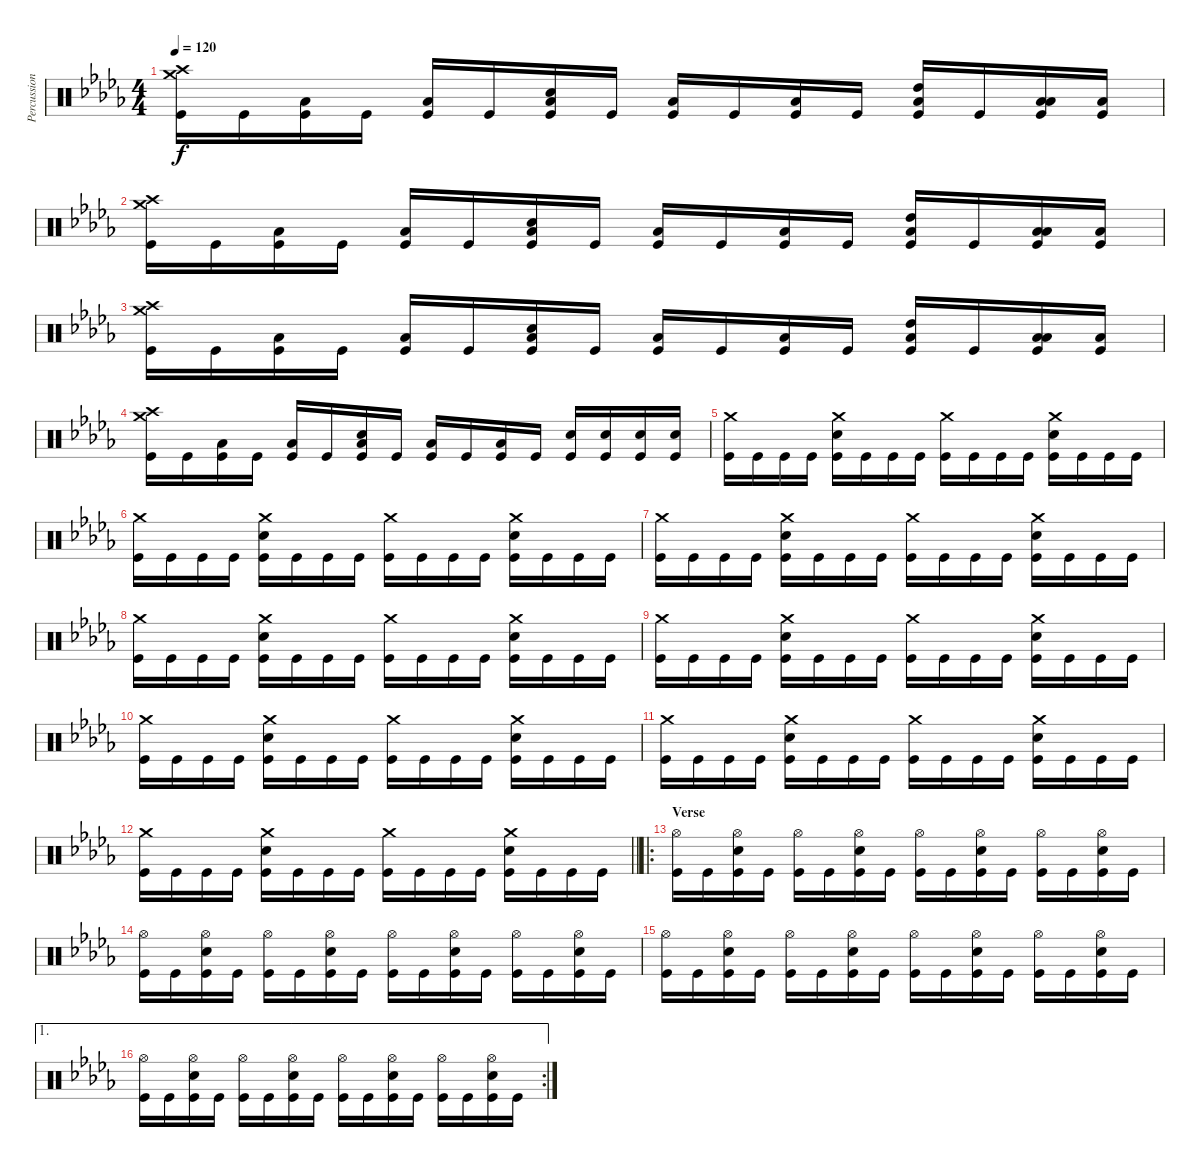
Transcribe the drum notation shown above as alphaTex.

\track ("Percussion" "Percussion") {instrument percussion}
\staff {score}
\articulation defaults
\ts (4 4)
\tempo 120
\clef neutral
\ks bbminor
("Crash medium (hit)" "Crash high (hit)" "Kick (hit)").16{dy f} "Kick (hit)".16 ("Low Floor Tom (hit)" "Kick (hit)").16 "Kick (hit)".16 ("Low Floor Tom (hit)" "Kick (hit)").16 "Kick (hit)".16 ("Snare (hit) 2" "Low Floor Tom (hit)" "Kick (hit)").16 "Kick (hit)".16 ("Low Floor Tom (hit)" "Kick (hit)").16 "Kick (hit)".16 ("Low Floor Tom (hit)" "Kick (hit)").16 "Kick (hit)".16 ("High Tom (hit)" "Low Floor Tom (hit)" "Kick (hit)").16 "Kick (hit)".16 ("Low Tom (hit)" "Low Floor Tom (hit)" "Kick (hit)").16 ("Low Tom (hit)" "Kick (hit)").16 |
("Crash medium (hit)" "Crash high (hit)" "Kick (hit)").16 "Kick (hit)".16 ("Low Floor Tom (hit)" "Kick (hit)").16 "Kick (hit)".16 ("Low Floor Tom (hit)" "Kick (hit)").16 "Kick (hit)".16 ("Snare (hit) 2" "Low Floor Tom (hit)" "Kick (hit)").16 "Kick (hit)".16 ("Low Floor Tom (hit)" "Kick (hit)").16 "Kick (hit)".16 ("Low Floor Tom (hit)" "Kick (hit)").16 "Kick (hit)".16 ("High Tom (hit)" "Low Floor Tom (hit)" "Kick (hit)").16 "Kick (hit)".16 ("Low Tom (hit)" "Low Floor Tom (hit)" "Kick (hit)").16 ("Low Tom (hit)" "Kick (hit)").16 |
("Crash medium (hit)" "Crash high (hit)" "Kick (hit)").16 "Kick (hit)".16 ("Low Floor Tom (hit)" "Kick (hit)").16 "Kick (hit)".16 ("Low Floor Tom (hit)" "Kick (hit)").16 "Kick (hit)".16 ("Snare (hit) 2" "Low Floor Tom (hit)" "Kick (hit)").16 "Kick (hit)".16 ("Low Floor Tom (hit)" "Kick (hit)").16 "Kick (hit)".16 ("Low Floor Tom (hit)" "Kick (hit)").16 "Kick (hit)".16 ("High Tom (hit)" "Low Floor Tom (hit)" "Kick (hit)").16 "Kick (hit)".16 ("Low Tom (hit)" "Low Floor Tom (hit)" "Kick (hit)").16 ("Low Tom (hit)" "Kick (hit)").16 |
("Crash medium (hit)" "Crash high (hit)" "Kick (hit)").16 "Kick (hit)".16 ("Low Floor Tom (hit)" "Kick (hit)").16 "Kick (hit)".16 ("Low Floor Tom (hit)" "Kick (hit)").16 "Kick (hit)".16 ("Snare (hit) 2" "Low Floor Tom (hit)" "Kick (hit)").16 "Kick (hit)".16 ("Low Floor Tom (hit)" "Kick (hit)").16 "Kick (hit)".16 ("Low Floor Tom (hit)" "Kick (hit)").16 "Kick (hit)".16 ("Snare (hit) 2" "Kick (hit)").16 ("Snare (hit) 2" "Kick (hit)").16 ("Snare (hit) 2" "Kick (hit)").16 ("Snare (hit) 2" "Kick (hit)").16 |
("Crash medium (hit)" "Kick (hit)").16 "Kick (hit)".16 "Kick (hit)".16 "Kick (hit)".16 ("Crash medium (hit)" "Snare (hit) 2" "Kick (hit)").16 "Kick (hit)".16 "Kick (hit)".16 "Kick (hit)".16 ("Crash medium (hit)" "Kick (hit)").16 "Kick (hit)".16 "Kick (hit)".16 "Kick (hit)".16 ("Crash medium (hit)" "Snare (hit) 2" "Kick (hit)").16 "Kick (hit)".16 "Kick (hit)".16 "Kick (hit)".16 |
("Crash medium (hit)" "Kick (hit)").16 "Kick (hit)".16 "Kick (hit)".16 "Kick (hit)".16 ("Crash medium (hit)" "Snare (hit) 2" "Kick (hit)").16 "Kick (hit)".16 "Kick (hit)".16 "Kick (hit)".16 ("Crash medium (hit)" "Kick (hit)").16 "Kick (hit)".16 "Kick (hit)".16 "Kick (hit)".16 ("Crash medium (hit)" "Snare (hit) 2" "Kick (hit)").16 "Kick (hit)".16 "Kick (hit)".16 "Kick (hit)".16 |
("Crash medium (hit)" "Kick (hit)").16 "Kick (hit)".16 "Kick (hit)".16 "Kick (hit)".16 ("Crash medium (hit)" "Snare (hit) 2" "Kick (hit)").16 "Kick (hit)".16 "Kick (hit)".16 "Kick (hit)".16 ("Crash medium (hit)" "Kick (hit)").16 "Kick (hit)".16 "Kick (hit)".16 "Kick (hit)".16 ("Crash medium (hit)" "Snare (hit) 2" "Kick (hit)").16 "Kick (hit)".16 "Kick (hit)".16 "Kick (hit)".16 |
("Crash medium (hit)" "Kick (hit)").16 "Kick (hit)".16 "Kick (hit)".16 "Kick (hit)".16 ("Crash medium (hit)" "Snare (hit) 2" "Kick (hit)").16 "Kick (hit)".16 "Kick (hit)".16 "Kick (hit)".16 ("Crash medium (hit)" "Kick (hit)").16 "Kick (hit)".16 "Kick (hit)".16 "Kick (hit)".16 ("Crash medium (hit)" "Snare (hit) 2" "Kick (hit)").16 "Kick (hit)".16 "Kick (hit)".16 "Kick (hit)".16 |
("Crash medium (hit)" "Kick (hit)").16 "Kick (hit)".16 "Kick (hit)".16 "Kick (hit)".16 ("Crash medium (hit)" "Snare (hit) 2" "Kick (hit)").16 "Kick (hit)".16 "Kick (hit)".16 "Kick (hit)".16 ("Crash medium (hit)" "Kick (hit)").16 "Kick (hit)".16 "Kick (hit)".16 "Kick (hit)".16 ("Crash medium (hit)" "Snare (hit) 2" "Kick (hit)").16 "Kick (hit)".16 "Kick (hit)".16 "Kick (hit)".16 |
("Crash medium (hit)" "Kick (hit)").16 "Kick (hit)".16 "Kick (hit)".16 "Kick (hit)".16 ("Crash medium (hit)" "Snare (hit) 2" "Kick (hit)").16 "Kick (hit)".16 "Kick (hit)".16 "Kick (hit)".16 ("Crash medium (hit)" "Kick (hit)").16 "Kick (hit)".16 "Kick (hit)".16 "Kick (hit)".16 ("Crash medium (hit)" "Snare (hit) 2" "Kick (hit)").16 "Kick (hit)".16 "Kick (hit)".16 "Kick (hit)".16 |
("Crash medium (hit)" "Kick (hit)").16 "Kick (hit)".16 "Kick (hit)".16 "Kick (hit)".16 ("Crash medium (hit)" "Snare (hit) 2" "Kick (hit)").16 "Kick (hit)".16 "Kick (hit)".16 "Kick (hit)".16 ("Crash medium (hit)" "Kick (hit)").16 "Kick (hit)".16 "Kick (hit)".16 "Kick (hit)".16 ("Crash medium (hit)" "Snare (hit) 2" "Kick (hit)").16 "Kick (hit)".16 "Kick (hit)".16 "Kick (hit)".16 |
\barLineRight lightlight
("Crash medium (hit)" "Kick (hit)").16 "Kick (hit)".16 "Kick (hit)".16 "Kick (hit)".16 ("Crash medium (hit)" "Snare (hit) 2" "Kick (hit)").16 "Kick (hit)".16 "Kick (hit)".16 "Kick (hit)".16 ("Crash medium (hit)" "Kick (hit)").16 "Kick (hit)".16 "Kick (hit)".16 "Kick (hit)".16 ("Crash medium (hit)" "Snare (hit) 2" "Kick (hit)").16 "Kick (hit)".16 "Kick (hit)".16 "Kick (hit)".16 |
\ro
\section ("" "Verse")
("Hi-Hat (open)" "Kick (hit)").16 "Kick (hit)".16 ("Hi-Hat (open)" "Snare (hit) 2" "Kick (hit)").16 "Kick (hit)".16 ("Hi-Hat (open)" "Kick (hit)").16 "Kick (hit)".16 ("Hi-Hat (open)" "Snare (hit) 2" "Kick (hit)").16 "Kick (hit)".16 ("Hi-Hat (open)" "Kick (hit)").16 "Kick (hit)".16 ("Hi-Hat (open)" "Snare (hit) 2" "Kick (hit)").16 "Kick (hit)".16 ("Hi-Hat (open)" "Kick (hit)").16 "Kick (hit)".16 ("Hi-Hat (open)" "Snare (hit) 2" "Kick (hit)").16 "Kick (hit)".16 |
("Hi-Hat (open)" "Kick (hit)").16 "Kick (hit)".16 ("Hi-Hat (open)" "Snare (hit) 2" "Kick (hit)").16 "Kick (hit)".16 ("Hi-Hat (open)" "Kick (hit)").16 "Kick (hit)".16 ("Hi-Hat (open)" "Snare (hit) 2" "Kick (hit)").16 "Kick (hit)".16 ("Hi-Hat (open)" "Kick (hit)").16 "Kick (hit)".16 ("Hi-Hat (open)" "Snare (hit) 2" "Kick (hit)").16 "Kick (hit)".16 ("Hi-Hat (open)" "Kick (hit)").16 "Kick (hit)".16 ("Hi-Hat (open)" "Snare (hit) 2" "Kick (hit)").16 "Kick (hit)".16 |
("Hi-Hat (open)" "Kick (hit)").16 "Kick (hit)".16 ("Hi-Hat (open)" "Snare (hit) 2" "Kick (hit)").16 "Kick (hit)".16 ("Hi-Hat (open)" "Kick (hit)").16 "Kick (hit)".16 ("Hi-Hat (open)" "Snare (hit) 2" "Kick (hit)").16 "Kick (hit)".16 ("Hi-Hat (open)" "Kick (hit)").16 "Kick (hit)".16 ("Hi-Hat (open)" "Snare (hit) 2" "Kick (hit)").16 "Kick (hit)".16 ("Hi-Hat (open)" "Kick (hit)").16 "Kick (hit)".16 ("Hi-Hat (open)" "Snare (hit) 2" "Kick (hit)").16 "Kick (hit)".16 |
\ae 1
\rc 2
("Hi-Hat (open)" "Kick (hit)").16 "Kick (hit)".16 ("Hi-Hat (open)" "Snare (hit) 2" "Kick (hit)").16 "Kick (hit)".16 ("Hi-Hat (open)" "Kick (hit)").16 "Kick (hit)".16 ("Hi-Hat (open)" "Snare (hit) 2" "Kick (hit)").16 "Kick (hit)".16 ("Hi-Hat (open)" "Kick (hit)").16 "Kick (hit)".16 ("Hi-Hat (open)" "Snare (hit) 2" "Kick (hit)").16 "Kick (hit)".16 ("Hi-Hat (open)" "Kick (hit)").16 "Kick (hit)".16 ("Hi-Hat (open)" "Snare (hit) 2" "Kick (hit)").16 "Kick (hit)".16
